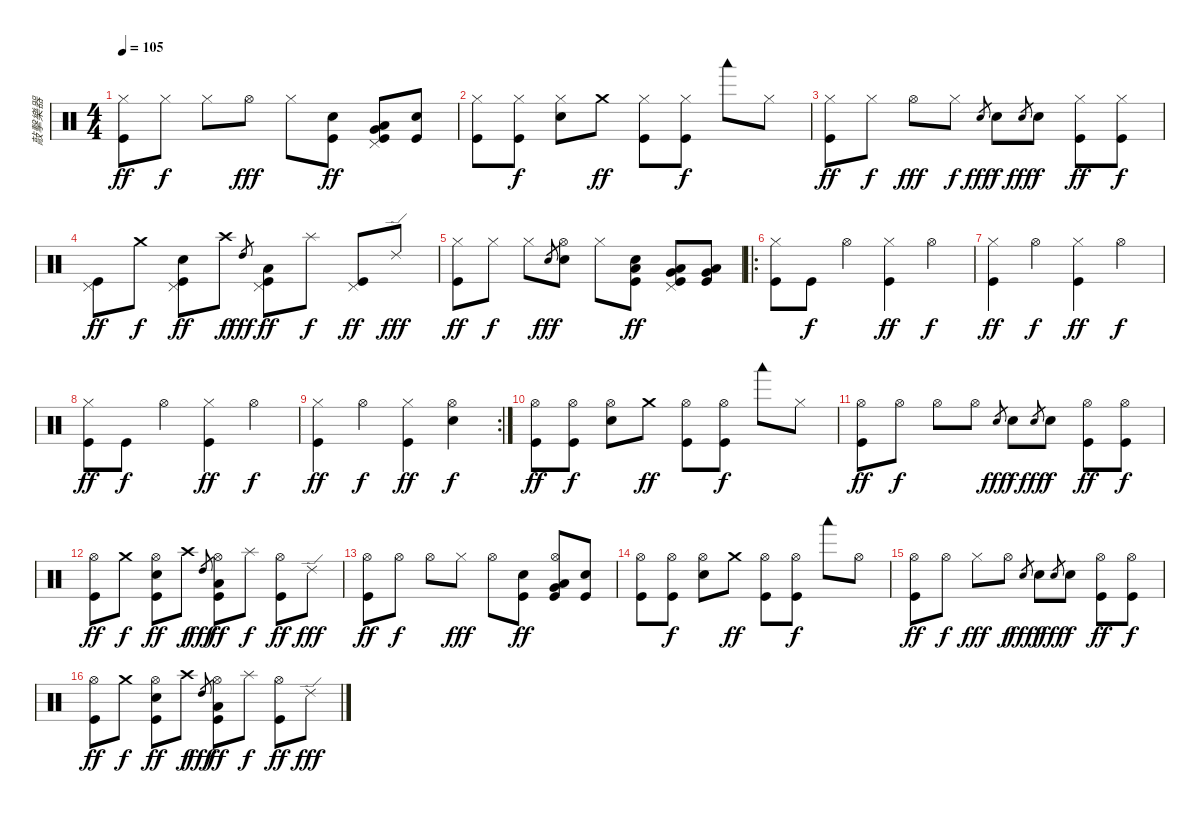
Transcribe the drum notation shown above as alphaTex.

\track ("敲擊樂器" "敲擊樂器") {instrument percussion}
\staff {score}
\articulation defaults
\ts (4 4)
\tempo 105
\clef neutral
\ks c
("Hi-Hat (closed)" "Kick (hit)").8{dy ff} "Hi-Hat (closed)".8{dy f} "Hi-Hat (closed)".8 "Hi-Hat (open)".8{dy fff} "Hi-Hat (closed)".8 ("Snare (hit) 2" "Kick (hit)").8{dy ff} ("Pedal Hi-Hat (hit)" "Low Tom (hit)" "Very Low Tom (hit)" "Kick (hit)").8 ("Snare (hit) 2" "Kick (hit)").8 |
("Hi-Hat (closed)" "Kick (hit)").8 ("Hi-Hat (closed)" "Kick (hit)").8{dy f} ("Hi-Hat (closed)" "Snare (hit) 2").8 "Crash medium (hit)".8{dy ff} ("Hi-Hat (closed)" "Kick (hit)").8 ("Hi-Hat (closed)" "Kick (hit)").8{dy f} "Woodblock low (hit)".8 "Hi-Hat (closed)".8 |
("Hi-Hat (closed)" "Kick (hit)").8{dy ff} "Hi-Hat (closed)".8{dy f} "Hi-Hat (open)".8{dy fff} "Hi-Hat (closed)".8{dy f} "Snare (hit) 2"{sl}.8{gr dy fff} "Snare (hit) 2".8{dy f} "Snare (hit) 2"{sl}.8{gr dy fff} "Snare (hit) 2".8{dy f} ("Hi-Hat (closed)" "Kick (hit)").8{dy ff} ("Hi-Hat (closed)" "Kick (hit)").8{dy f} |
("Pedal Hi-Hat (hit)" "Kick (hit)").8{dy ff} "Crash medium (hit)".8{dy f} ("Pedal Hi-Hat (hit)" "Snare (hit) 2" "Kick (hit)").8{dy ff} "Crash high (hit)".8{dy f} "High Tom (hit)"{sl}.8{gr dy fff} ("Pedal Hi-Hat (hit)" "Low Tom (hit)" "Kick (hit)").8{dy ff} "Splash (hit)".8{dy f} ("Pedal Hi-Hat (hit)" "Kick (hit)").8{dy ff} "Ride (edge) 2".8{dy fff} |
("Hi-Hat (closed)" "Kick (hit)").8{dy ff} "Hi-Hat (closed)".8{dy f} "Hi-Hat (closed)".8 "Snare (hit) 2"{sl}.8{gr dy fff} ("Hi-Hat (open)" "Snare (hit) 2").8 "Hi-Hat (closed)".8 ("Snare (hit) 2" "Low Tom (hit)" "Kick (hit)").8{dy ff} ("Pedal Hi-Hat (hit)" "Low Tom (hit)" "Very Low Tom (hit)" "Kick (hit)").8 ("Low Tom (hit)" "Very Low Tom (hit)" "Kick (hit)").8 |
\ro
("Hi-Hat (closed)" "Kick (hit)").8 "Kick (hit)".8{dy f} "Hi-Hat (open)".4 ("Hi-Hat (closed)" "Kick (hit)").4{dy ff} "Hi-Hat (open)".4{dy f} |
("Hi-Hat (closed)" "Kick (hit)").4{dy ff} "Hi-Hat (open)".4{dy f} ("Hi-Hat (closed)" "Kick (hit)").4{dy ff} "Hi-Hat (open)".4{dy f} |
("Hi-Hat (closed)" "Kick (hit)").8{dy ff} "Kick (hit)".8{dy f} "Hi-Hat (open)".4 ("Hi-Hat (closed)" "Kick (hit)").4{dy ff} "Hi-Hat (open)".4{dy f} |
\rc 2
("Hi-Hat (closed)" "Kick (hit)").4{dy ff} "Hi-Hat (open)".4{dy f} ("Hi-Hat (closed)" "Kick (hit)").4{dy ff} ("Hi-Hat (open)" "Snare (hit) 2").4{dy f} |
("Hi-Hat (open)" "Kick (hit)").8{dy ff} ("Hi-Hat (open)" "Kick (hit)").8{dy f} ("Hi-Hat (open)" "Snare (hit) 2").8 "Crash medium (hit)".8{dy ff} ("Hi-Hat (open)" "Kick (hit)").8 ("Hi-Hat (open)" "Kick (hit)").8{dy f} "Woodblock low (hit)".8 "Hi-Hat (closed)".8 |
("Hi-Hat (open)" "Kick (hit)").8{dy ff} "Hi-Hat (open)".8{dy f} "Hi-Hat (open)".8 "Hi-Hat (open)".8 "Snare (hit) 2"{sl}.8{gr dy fff} "Snare (hit) 2".8{dy f} "Snare (hit) 2"{sl}.8{gr dy fff} "Snare (hit) 2".8{dy f} ("Hi-Hat (open)" "Kick (hit)").8{dy ff} ("Hi-Hat (open)" "Kick (hit)").8{dy f} |
("Hi-Hat (open)" "Kick (hit)").8{dy ff} "Crash medium (hit)".8{dy f} ("Hi-Hat (open)" "Snare (hit) 2" "Kick (hit)").8{dy ff} "Crash high (hit)".8{dy f} "High Tom (hit)"{sl}.8{gr dy fff} ("Hi-Hat (open)" "Low Tom (hit)" "Kick (hit)").8{dy ff} "Splash (hit)".8{dy f} ("Hi-Hat (open)" "Kick (hit)").8{dy ff} "Ride (edge) 2".8{dy fff} |
("Hi-Hat (open)" "Kick (hit)").8{dy ff} "Hi-Hat (open)".8{dy f} "Hi-Hat (open)".8 "Hi-Hat (closed)".8{dy fff} "Hi-Hat (open)".8 ("Snare (hit) 2" "Kick (hit)").8{dy ff} ("Hi-Hat (open)" "Low Tom (hit)" "Very Low Tom (hit)" "Kick (hit)").8 ("Snare (hit) 2" "Kick (hit)").8 |
("Hi-Hat (open)" "Kick (hit)").8 ("Hi-Hat (open)" "Kick (hit)").8{dy f} ("Hi-Hat (open)" "Snare (hit) 2").8 "Crash medium (hit)".8{dy ff} ("Hi-Hat (open)" "Kick (hit)").8 ("Hi-Hat (open)" "Kick (hit)").8{dy f} "Woodblock low (hit)".8 "Hi-Hat (open)".8 |
("Hi-Hat (open)" "Kick (hit)").8{dy ff} "Hi-Hat (open)".8{dy f} "Hi-Hat (closed)".8{dy fff} "Hi-Hat (open)".8{dy f} "Snare (hit) 2"{sl}.8{gr dy fff} "Snare (hit) 2".8{dy f} "Snare (hit) 2"{sl}.8{gr dy fff} "Snare (hit) 2".8{dy f} ("Hi-Hat (open)" "Kick (hit)").8{dy ff} ("Hi-Hat (open)" "Kick (hit)").8{dy f} |
("Hi-Hat (open)" "Kick (hit)").8{dy ff} "Crash medium (hit)".8{dy f} ("Hi-Hat (open)" "Snare (hit) 2" "Kick (hit)").8{dy ff} "Crash high (hit)".8{dy f} "High Tom (hit)"{sl}.8{gr dy fff} ("Hi-Hat (open)" "Low Tom (hit)" "Kick (hit)").8{dy ff} "Splash (hit)".8{dy f} ("Hi-Hat (open)" "Kick (hit)").8{dy ff} "Ride (edge) 2".8{dy fff}
